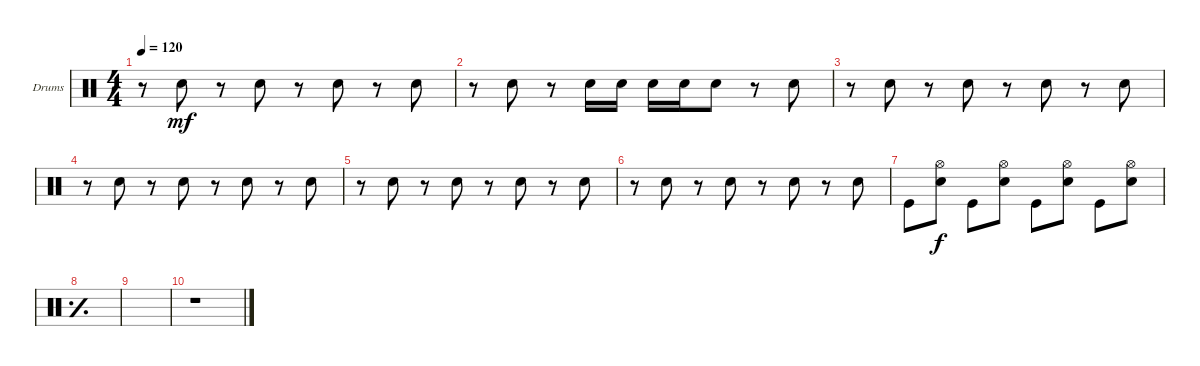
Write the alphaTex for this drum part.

\bracketExtendMode groupsimilarinstruments
\firstSystemTrackNameOrientation horizontal
\otherSystemsTrackNameOrientation horizontal
\track ("Drumkit" "Drums") {instrument percussion}
\staff {score}
\articulation defaults
\ts (4 4)
\tempo 120
\clef neutral
\ks c
r.8{dy mf} "Snare (hit) 2".8 r.8 "Snare (hit) 2".8 r.8 "Snare (hit) 2".8 r.8 "Snare (hit) 2".8 |
\scale
0.333333 r.8 "Snare (hit) 2".8 r.8 "Snare (hit) 2".16 "Snare (hit) 2".16 "Snare (hit) 2".16 "Snare (hit) 2".16 "Snare (hit) 2".8 r.8 "Snare (hit) 2".8 |
\scale
0.333333 r.8 "Snare (hit) 2".8 r.8 "Snare (hit) 2".8 r.8 "Snare (hit) 2".8 r.8 "Snare (hit) 2".8 |
\scale
0.333333 r.8 "Snare (hit) 2".8 r.8 "Snare (hit) 2".8 r.8 "Snare (hit) 2".8 r.8 "Snare (hit) 2".8 |
\scale
0.333333 r.8 "Snare (hit) 2".8 r.8 "Snare (hit) 2".8 r.8 "Snare (hit) 2".8 r.8 "Snare (hit) 2".8 |
\scale
0.333333 r.8 "Snare (hit) 2".8 r.8 "Snare (hit) 2".8 r.8 "Snare (hit) 2".8 r.8 "Snare (hit) 2".8 |
\scale
0.333333 "Kick (hit)".8 ("Hi-Hat (open)" "Snare (hit) 2").8{dy f} "Kick (hit)".8 ("Hi-Hat (open)" "Snare (hit) 2").8 "Kick (hit)".8 ("Snare (hit) 2" "Hi-Hat (open)").8 "Kick (hit)".8 ("Snare (hit) 2" "Hi-Hat (open)").8 |
\simile simple
\scale
0.333333 |
|
\simile none
\scale
0.333333 r.1
